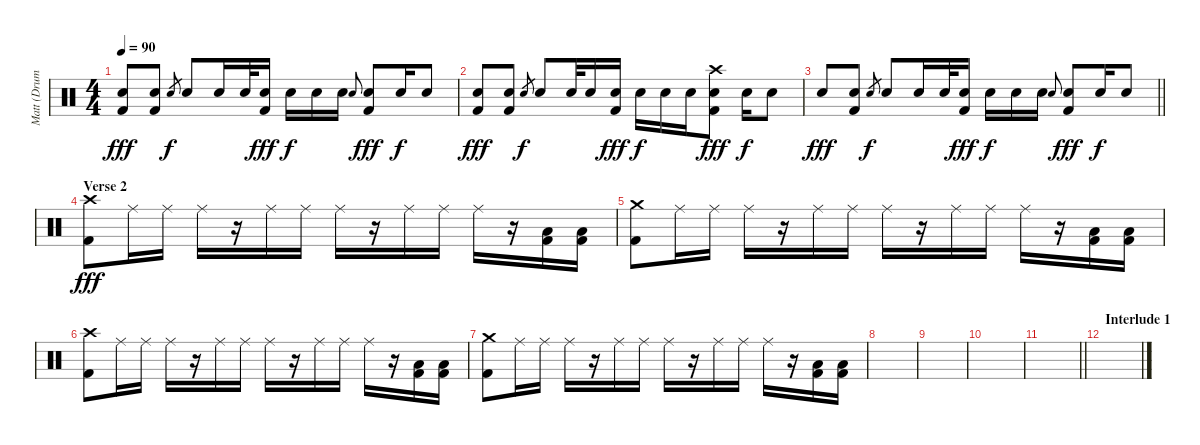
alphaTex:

\track ("Matt (Drums)" "Matt (Drum") {instrument percussion}
\staff {score}
\articulation defaults
\ts (4 4)
\tempo 90
\clef neutral
\ks c
("Snare (hit) 2" "Kick (hit) 2").8{dy fff} ("Snare (hit) 2" "Kick (hit) 2").8 "Snare (hit) 2".8{gr dy f} "Snare (hit) 2".8 "Snare (hit) 2".16 "Snare (hit) 2".32 ("Snare (hit) 2" "Kick (hit) 2").16{dy fff} "Snare (hit) 2".16{dy f} "Snare (hit) 2".16 "Snare (hit) 2".16 "Snare (hit) 2".8{gr onbeat} ("Snare (hit) 2" "Kick (hit) 2").8{dy fff} "Snare (hit) 2".16{dy f} "Snare (hit) 2".8 |
("Snare (hit) 2" "Kick (hit) 2").8{dy fff} ("Snare (hit) 2" "Kick (hit) 2").8 "Snare (hit) 2".8{gr dy f} "Snare (hit) 2".8 "Snare (hit) 2".32 "Snare (hit) 2".16 ("Snare (hit) 2" "Kick (hit) 2").16{dy fff} "Snare (hit) 2".16{dy f} "Snare (hit) 2".16 "Snare (hit) 2".16 ("Crash high (hit)" "Snare (hit) 2" "Kick (hit) 2").8{dy fff} "Snare (hit) 2".16{dy f} "Snare (hit) 2".8 |
\barLineRight lightlight "Snare (hit) 2".8{dy fff}
("Snare (hit) 2" "Kick (hit) 2").8 "Snare (hit) 2".8{gr dy f} "Snare (hit) 2".8 "Snare (hit) 2".16 "Snare (hit) 2".32 ("Snare (hit) 2" "Kick (hit) 2").16{dy fff} "Snare (hit) 2".16{dy f} "Snare (hit) 2".16 "Snare (hit) 2".16 "Snare (hit) 2".8{gr onbeat} ("Snare (hit) 2" "Kick (hit) 2").8{dy fff} "Snare (hit) 2".16{dy f} "Snare (hit) 2".8 |
\section ("" "Verse 2")
("Crash high (hit)" "Kick (hit) 2").8{dy fff} "Ride (middle)".16 "Ride (middle)".16 "Ride (middle)".16 r.16 "Ride (middle)".16 "Ride (middle)".16 "Ride (middle)".16 r.16 "Ride (middle)".16 "Ride (middle)".16 "Ride (middle)".16 r.16 ("Low Tom (hit)" "Kick (hit) 2").16 ("Low Tom (hit)" "Kick (hit) 2").16 |
("Crash medium (hit)" "Kick (hit) 2").8 "Ride (middle)".16 "Ride (middle)".16 "Ride (middle)".16 r.16 "Ride (middle)".16 "Ride (middle)".16 "Ride (middle)".16 r.16 "Ride (middle)".16 "Ride (middle)".16 "Ride (middle)".16 r.16 ("Low Tom (hit)" "Kick (hit) 2").16 ("Low Tom (hit)" "Kick (hit) 2").16 |
("Crash high (hit)" "Kick (hit) 2").8 "Ride (middle)".16 "Ride (middle)".16 "Ride (middle)".16 r.16 "Ride (middle)".16 "Ride (middle)".16 "Ride (middle)".16 r.16 "Ride (middle)".16 "Ride (middle)".16 "Ride (middle)".16 r.16 ("Low Tom (hit)" "Kick (hit) 2").16 ("Low Tom (hit)" "Kick (hit) 2").16 |
("Crash medium (hit)" "Kick (hit) 2").8 "Ride (middle)".16 "Ride (middle)".16 "Ride (middle)".16 r.16 "Ride (middle)".16 "Ride (middle)".16 "Ride (middle)".16 r.16 "Ride (middle)".16 "Ride (middle)".16 "Ride (middle)".16 r.16 ("Low Tom (hit)" "Kick (hit) 2").16 ("Low Tom (hit)" "Kick (hit) 2").16 |
|
|
|
\barLineRight lightlight
|
\section ("" "Interlude 1")
